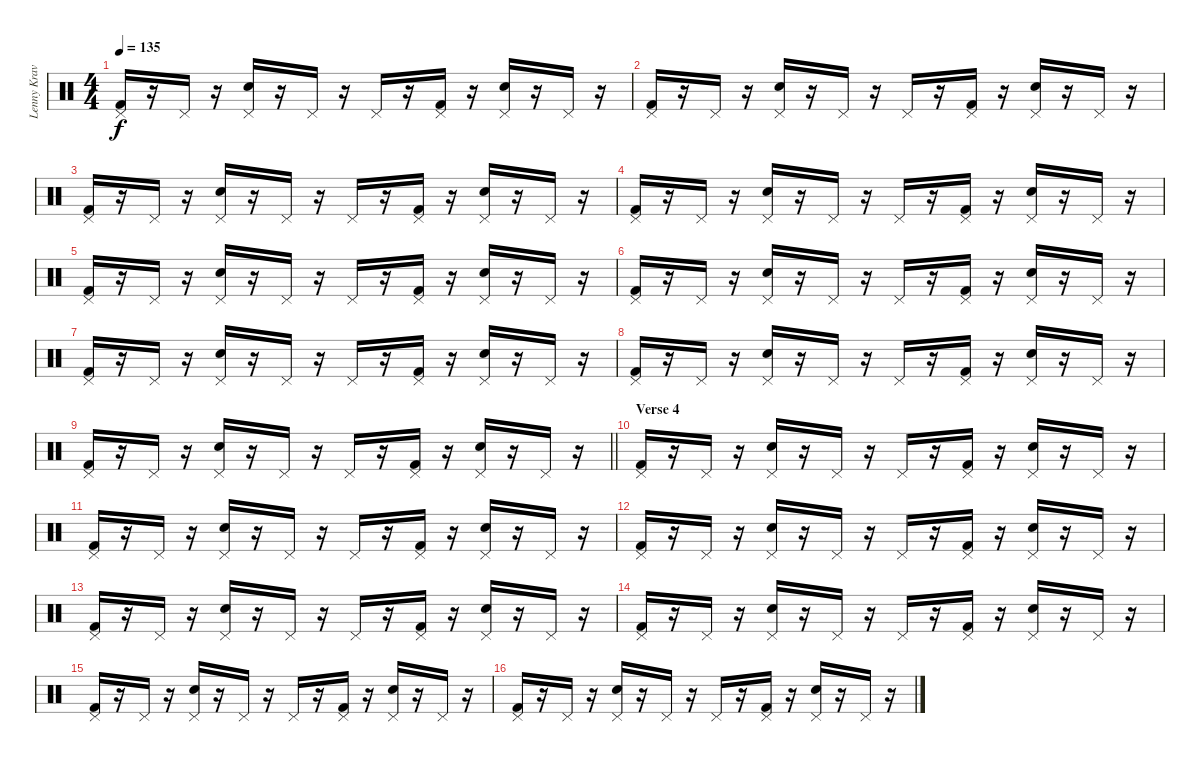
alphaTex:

\track ("Lenny Kravitz (drums)" "Lenny Krav") {instrument percussion}
\staff {score}
\articulation defaults
\ts (4 4)
\tempo 135
\clef neutral
\ks c
("Pedal Hi-Hat (hit)" "Kick (hit) 2").16{dy f} r.16 "Pedal Hi-Hat (hit)".16 r.16 ("Pedal Hi-Hat (hit)" "Electric Snare (hit)").16 r.16 "Pedal Hi-Hat (hit)".16 r.16 "Pedal Hi-Hat (hit)".16 r.16 ("Pedal Hi-Hat (hit)" "Kick (hit) 2").16 r.16 ("Pedal Hi-Hat (hit)" "Electric Snare (hit)").16 r.16 "Pedal Hi-Hat (hit)".16 r.16 |
("Pedal Hi-Hat (hit)" "Kick (hit) 2").16 r.16 "Pedal Hi-Hat (hit)".16 r.16 ("Pedal Hi-Hat (hit)" "Electric Snare (hit)").16 r.16 "Pedal Hi-Hat (hit)".16 r.16 "Pedal Hi-Hat (hit)".16 r.16 ("Pedal Hi-Hat (hit)" "Kick (hit) 2").16 r.16 ("Pedal Hi-Hat (hit)" "Electric Snare (hit)").16 r.16 "Pedal Hi-Hat (hit)".16 r.16 |
("Pedal Hi-Hat (hit)" "Kick (hit) 2").16 r.16 "Pedal Hi-Hat (hit)".16 r.16 ("Pedal Hi-Hat (hit)" "Electric Snare (hit)").16 r.16 "Pedal Hi-Hat (hit)".16 r.16 "Pedal Hi-Hat (hit)".16 r.16 ("Pedal Hi-Hat (hit)" "Kick (hit) 2").16 r.16 ("Pedal Hi-Hat (hit)" "Electric Snare (hit)").16 r.16 "Pedal Hi-Hat (hit)".16 r.16 |
("Pedal Hi-Hat (hit)" "Kick (hit) 2").16 r.16 "Pedal Hi-Hat (hit)".16 r.16 ("Pedal Hi-Hat (hit)" "Electric Snare (hit)").16 r.16 "Pedal Hi-Hat (hit)".16 r.16 "Pedal Hi-Hat (hit)".16 r.16 ("Pedal Hi-Hat (hit)" "Kick (hit) 2").16 r.16 ("Pedal Hi-Hat (hit)" "Electric Snare (hit)").16 r.16 "Pedal Hi-Hat (hit)".16 r.16 |
("Pedal Hi-Hat (hit)" "Kick (hit) 2").16 r.16 "Pedal Hi-Hat (hit)".16 r.16 ("Pedal Hi-Hat (hit)" "Electric Snare (hit)").16 r.16 "Pedal Hi-Hat (hit)".16 r.16 "Pedal Hi-Hat (hit)".16 r.16 ("Pedal Hi-Hat (hit)" "Kick (hit) 2").16 r.16 ("Pedal Hi-Hat (hit)" "Electric Snare (hit)").16 r.16 "Pedal Hi-Hat (hit)".16 r.16 |
("Pedal Hi-Hat (hit)" "Kick (hit) 2").16 r.16 "Pedal Hi-Hat (hit)".16 r.16 ("Pedal Hi-Hat (hit)" "Electric Snare (hit)").16 r.16 "Pedal Hi-Hat (hit)".16 r.16 "Pedal Hi-Hat (hit)".16 r.16 ("Pedal Hi-Hat (hit)" "Kick (hit) 2").16 r.16 ("Pedal Hi-Hat (hit)" "Electric Snare (hit)").16 r.16 "Pedal Hi-Hat (hit)".16 r.16 |
("Pedal Hi-Hat (hit)" "Kick (hit) 2").16 r.16 "Pedal Hi-Hat (hit)".16 r.16 ("Pedal Hi-Hat (hit)" "Electric Snare (hit)").16 r.16 "Pedal Hi-Hat (hit)".16 r.16 "Pedal Hi-Hat (hit)".16 r.16 ("Pedal Hi-Hat (hit)" "Kick (hit) 2").16 r.16 ("Pedal Hi-Hat (hit)" "Electric Snare (hit)").16 r.16 "Pedal Hi-Hat (hit)".16 r.16 |
("Pedal Hi-Hat (hit)" "Kick (hit) 2").16 r.16 "Pedal Hi-Hat (hit)".16 r.16 ("Pedal Hi-Hat (hit)" "Electric Snare (hit)").16 r.16 "Pedal Hi-Hat (hit)".16 r.16 "Pedal Hi-Hat (hit)".16 r.16 ("Pedal Hi-Hat (hit)" "Kick (hit) 2").16 r.16 ("Pedal Hi-Hat (hit)" "Electric Snare (hit)").16 r.16 "Pedal Hi-Hat (hit)".16 r.16 |
\barLineRight lightlight
("Pedal Hi-Hat (hit)" "Kick (hit) 2").16 r.16 "Pedal Hi-Hat (hit)".16 r.16 ("Pedal Hi-Hat (hit)" "Electric Snare (hit)").16 r.16 "Pedal Hi-Hat (hit)".16 r.16 "Pedal Hi-Hat (hit)".16 r.16 ("Pedal Hi-Hat (hit)" "Kick (hit) 2").16 r.16 ("Pedal Hi-Hat (hit)" "Electric Snare (hit)").16 r.16 "Pedal Hi-Hat (hit)".16 r.16 |
\section ("" "Verse 4")
("Pedal Hi-Hat (hit)" "Kick (hit) 2").16 r.16 "Pedal Hi-Hat (hit)".16 r.16 ("Pedal Hi-Hat (hit)" "Electric Snare (hit)").16 r.16 "Pedal Hi-Hat (hit)".16 r.16 "Pedal Hi-Hat (hit)".16 r.16 ("Pedal Hi-Hat (hit)" "Kick (hit) 2").16 r.16 ("Pedal Hi-Hat (hit)" "Electric Snare (hit)").16 r.16 "Pedal Hi-Hat (hit)".16 r.16 |
("Pedal Hi-Hat (hit)" "Kick (hit) 2").16 r.16 "Pedal Hi-Hat (hit)".16 r.16 ("Pedal Hi-Hat (hit)" "Electric Snare (hit)").16 r.16 "Pedal Hi-Hat (hit)".16 r.16 "Pedal Hi-Hat (hit)".16 r.16 ("Pedal Hi-Hat (hit)" "Kick (hit) 2").16 r.16 ("Pedal Hi-Hat (hit)" "Electric Snare (hit)").16 r.16 "Pedal Hi-Hat (hit)".16 r.16 |
("Pedal Hi-Hat (hit)" "Kick (hit) 2").16 r.16 "Pedal Hi-Hat (hit)".16 r.16 ("Pedal Hi-Hat (hit)" "Electric Snare (hit)").16 r.16 "Pedal Hi-Hat (hit)".16 r.16 "Pedal Hi-Hat (hit)".16 r.16 ("Pedal Hi-Hat (hit)" "Kick (hit) 2").16 r.16 ("Pedal Hi-Hat (hit)" "Electric Snare (hit)").16 r.16 "Pedal Hi-Hat (hit)".16 r.16 |
("Pedal Hi-Hat (hit)" "Kick (hit) 2").16 r.16 "Pedal Hi-Hat (hit)".16 r.16 ("Pedal Hi-Hat (hit)" "Electric Snare (hit)").16 r.16 "Pedal Hi-Hat (hit)".16 r.16 "Pedal Hi-Hat (hit)".16 r.16 ("Pedal Hi-Hat (hit)" "Kick (hit) 2").16 r.16 ("Pedal Hi-Hat (hit)" "Electric Snare (hit)").16 r.16 "Pedal Hi-Hat (hit)".16 r.16 |
("Pedal Hi-Hat (hit)" "Kick (hit) 2").16 r.16 "Pedal Hi-Hat (hit)".16 r.16 ("Pedal Hi-Hat (hit)" "Electric Snare (hit)").16 r.16 "Pedal Hi-Hat (hit)".16 r.16 "Pedal Hi-Hat (hit)".16 r.16 ("Pedal Hi-Hat (hit)" "Kick (hit) 2").16 r.16 ("Pedal Hi-Hat (hit)" "Electric Snare (hit)").16 r.16 "Pedal Hi-Hat (hit)".16 r.16 |
("Pedal Hi-Hat (hit)" "Kick (hit) 2").16 r.16 "Pedal Hi-Hat (hit)".16 r.16 ("Pedal Hi-Hat (hit)" "Electric Snare (hit)").16 r.16 "Pedal Hi-Hat (hit)".16 r.16 "Pedal Hi-Hat (hit)".16 r.16 ("Pedal Hi-Hat (hit)" "Kick (hit) 2").16 r.16 ("Pedal Hi-Hat (hit)" "Electric Snare (hit)").16 r.16 "Pedal Hi-Hat (hit)".16 r.16 |
("Pedal Hi-Hat (hit)" "Kick (hit) 2").16 r.16 "Pedal Hi-Hat (hit)".16 r.16 ("Pedal Hi-Hat (hit)" "Electric Snare (hit)").16 r.16 "Pedal Hi-Hat (hit)".16 r.16 "Pedal Hi-Hat (hit)".16 r.16 ("Pedal Hi-Hat (hit)" "Kick (hit) 2").16 r.16 ("Pedal Hi-Hat (hit)" "Electric Snare (hit)").16 r.16 "Pedal Hi-Hat (hit)".16 r.16
